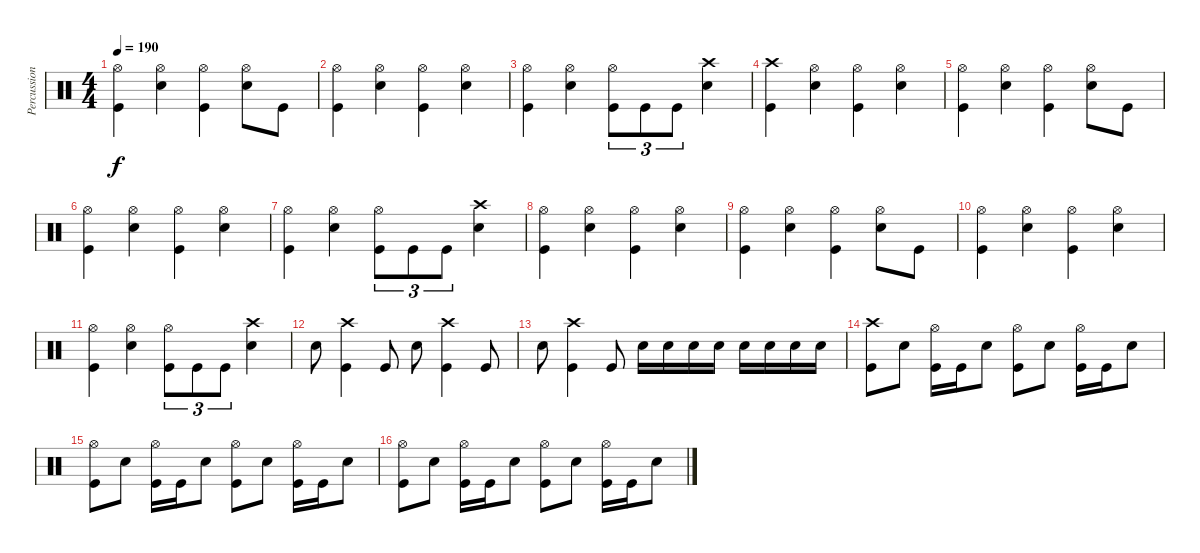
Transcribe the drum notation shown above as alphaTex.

\track ("Percussion" "Percussion") {instrument percussion}
\staff {score}
\articulation defaults
\ts (4 4)
\tempo 190
\clef neutral
\ks c
("Hi-Hat (open)" "Kick (hit)").4{dy f} ("Hi-Hat (open)" "Snare (hit) 2").4 ("Hi-Hat (open)" "Kick (hit)").4 ("Hi-Hat (open)" "Snare (hit) 2").8 "Kick (hit)".8 |
("Hi-Hat (open)" "Kick (hit)").4 ("Hi-Hat (open)" "Snare (hit) 2").4 ("Hi-Hat (open)" "Kick (hit)").4 ("Hi-Hat (open)" "Snare (hit) 2").4 |
("Hi-Hat (open)" "Kick (hit)").4 ("Hi-Hat (open)" "Snare (hit) 2").4 ("Hi-Hat (open)" "Kick (hit)").8{tu (3 2)} "Kick (hit)".8{tu (3 2)} "Kick (hit)".8{tu (3 2)} ("Crash high (hit)" "Snare (hit) 2").4 |
("Crash high (hit)" "Kick (hit)").4 ("Hi-Hat (open)" "Snare (hit) 2").4 ("Hi-Hat (open)" "Kick (hit)").4 ("Hi-Hat (open)" "Snare (hit) 2").4 |
("Hi-Hat (open)" "Kick (hit)").4 ("Hi-Hat (open)" "Snare (hit) 2").4 ("Hi-Hat (open)" "Kick (hit)").4 ("Hi-Hat (open)" "Snare (hit) 2").8 "Kick (hit)".8 |
("Hi-Hat (open)" "Kick (hit)").4 ("Hi-Hat (open)" "Snare (hit) 2").4 ("Hi-Hat (open)" "Kick (hit)").4 ("Hi-Hat (open)" "Snare (hit) 2").4 |
("Hi-Hat (open)" "Kick (hit)").4 ("Hi-Hat (open)" "Snare (hit) 2").4 ("Hi-Hat (open)" "Kick (hit)").8{tu (3 2)} "Kick (hit)".8{tu (3 2)} "Kick (hit)".8{tu (3 2)} ("Crash high (hit)" "Snare (hit) 2").4 |
("Hi-Hat (open)" "Kick (hit)").4 ("Hi-Hat (open)" "Snare (hit) 2").4 ("Hi-Hat (open)" "Kick (hit)").4 ("Hi-Hat (open)" "Snare (hit) 2").4 |
("Hi-Hat (open)" "Kick (hit)").4 ("Hi-Hat (open)" "Snare (hit) 2").4 ("Hi-Hat (open)" "Kick (hit)").4 ("Hi-Hat (open)" "Snare (hit) 2").8 "Kick (hit)".8 |
("Hi-Hat (open)" "Kick (hit)").4 ("Hi-Hat (open)" "Snare (hit) 2").4 ("Hi-Hat (open)" "Kick (hit)").4 ("Hi-Hat (open)" "Snare (hit) 2").4 |
("Hi-Hat (open)" "Kick (hit)").4 ("Hi-Hat (open)" "Snare (hit) 2").4 ("Hi-Hat (open)" "Kick (hit)").8{tu (3 2)} "Kick (hit)".8{tu (3 2)} "Kick (hit)".8{tu (3 2)} ("Crash high (hit)" "Snare (hit) 2").4 |
"Snare (hit) 2".8 ("Crash high (hit)" "Kick (hit)").4 "Kick (hit)".8 "Snare (hit) 2".8 ("Crash high (hit)" "Kick (hit)").4 "Kick (hit)".8 |
"Snare (hit) 2".8 ("Crash high (hit)" "Kick (hit)").4 "Kick (hit)".8 "Snare (hit) 2".16 "Snare (hit) 2".16 "Snare (hit) 2".16 "Snare (hit) 2".16 "Snare (hit) 2".16 "Snare (hit) 2".16 "Snare (hit) 2".16 "Snare (hit) 2".16 |
("Crash high (hit)" "Kick (hit)").8 "Snare (hit) 2".8 ("Hi-Hat (open)" "Kick (hit)").16 "Kick (hit)".16 "Snare (hit) 2".8 ("Hi-Hat (open)" "Kick (hit)").8 "Snare (hit) 2".8 ("Hi-Hat (open)" "Kick (hit)").16 "Kick (hit)".16 "Snare (hit) 2".8 |
("Hi-Hat (open)" "Kick (hit)").8 "Snare (hit) 2".8 ("Hi-Hat (open)" "Kick (hit)").16 "Kick (hit)".16 "Snare (hit) 2".8 ("Hi-Hat (open)" "Kick (hit)").8 "Snare (hit) 2".8 ("Hi-Hat (open)" "Kick (hit)").16 "Kick (hit)".16 "Snare (hit) 2".8 |
("Hi-Hat (open)" "Kick (hit)").8 "Snare (hit) 2".8 ("Hi-Hat (open)" "Kick (hit)").16 "Kick (hit)".16 "Snare (hit) 2".8 ("Hi-Hat (open)" "Kick (hit)").8 "Snare (hit) 2".8 ("Hi-Hat (open)" "Kick (hit)").16 "Kick (hit)".16 "Snare (hit) 2".8
